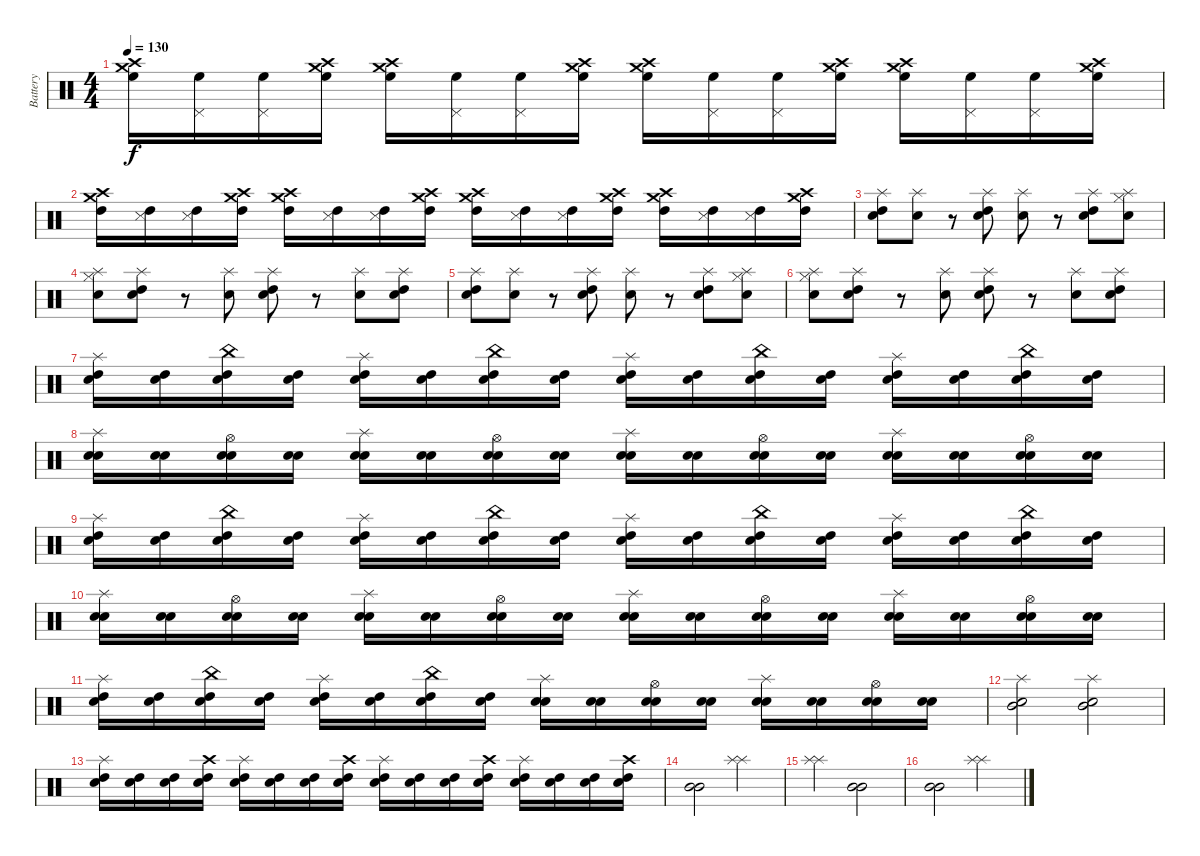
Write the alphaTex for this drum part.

\track ("Battery" "Battery") {instrument percussion}
\staff {score}
\articulation defaults
\ts (4 4)
\tempo 130
\clef neutral
\ks c
("High Floor Tom (hit)" "Crash high (hit)" "Crash medium (hit)").16{dy f} ("High Floor Tom (hit)" "Pedal Hi-Hat (hit)").16 ("High Floor Tom (hit)" "Pedal Hi-Hat (hit)").16 ("High Floor Tom (hit)" "Crash high (hit)" "Crash medium (hit)").16 ("High Floor Tom (hit)" "Crash high (hit)" "Crash medium (hit)").16 ("High Floor Tom (hit)" "Pedal Hi-Hat (hit)").16 ("High Floor Tom (hit)" "Pedal Hi-Hat (hit)").16 ("High Floor Tom (hit)" "Crash high (hit)" "Crash medium (hit)").16 ("High Floor Tom (hit)" "Crash high (hit)" "Crash medium (hit)").16 ("High Floor Tom (hit)" "Pedal Hi-Hat (hit)").16 ("High Floor Tom (hit)" "Pedal Hi-Hat (hit)").16 ("High Floor Tom (hit)" "Crash high (hit)" "Crash medium (hit)").16 ("High Floor Tom (hit)" "Crash high (hit)" "Crash medium (hit)").16 ("High Floor Tom (hit)" "Pedal Hi-Hat (hit)").16 ("High Floor Tom (hit)" "Pedal Hi-Hat (hit)").16 ("High Floor Tom (hit)" "Crash high (hit)" "Crash medium (hit)").16 |
("High Tom (hit)" "Crash high (hit)" "Crash medium (hit)").16 ("High Tom (hit)" "Snare (side stick) 3").16 ("High Tom (hit)" "Snare (side stick) 3").16 ("High Tom (hit)" "Crash high (hit)" "Crash medium (hit)").16 ("High Tom (hit)" "Crash high (hit)" "Crash medium (hit)").16 ("High Tom (hit)" "Snare (side stick) 3").16 ("High Tom (hit)" "Snare (side stick) 3").16 ("High Tom (hit)" "Crash high (hit)" "Crash medium (hit)").16 ("High Tom (hit)" "Crash high (hit)" "Crash medium (hit)").16 ("High Tom (hit)" "Snare (side stick) 3").16 ("High Tom (hit)" "Snare (side stick) 3").16 ("High Tom (hit)" "Crash high (hit)" "Crash medium (hit)").16 ("High Tom (hit)" "Crash high (hit)" "Crash medium (hit)").16 ("High Tom (hit)" "Snare (side stick) 3").16 ("High Tom (hit)" "Snare (side stick) 3").16 ("High Tom (hit)" "Crash high (hit)" "Crash medium (hit)").16 |
("Snare (hit) 2" "Splash (hit)" "High Tom (hit)").8 ("Snare (hit) 2" "Splash (hit)").8 r.8 ("Snare (hit) 2" "Splash (hit)" "High Tom (hit)").8 ("Snare (hit) 2" "Splash (hit)").8 r.8 ("Snare (hit) 2" "Splash (hit)" "High Tom (hit)").8 ("Snare (hit) 2" "Splash (hit)" "Hi-Hat (closed)").8 |
("Snare (hit) 2" "Splash (hit)" "Hi-Hat (closed)").8 ("Snare (hit) 2" "Splash (hit)" "High Tom (hit)").8 r.8 ("Snare (hit) 2" "Splash (hit)").8 ("Snare (hit) 2" "Splash (hit)" "High Tom (hit)").8 r.8 ("Snare (hit) 2" "Splash (hit)").8 ("Snare (hit) 2" "Splash (hit)" "High Tom (hit)").8 |
("Snare (hit) 2" "Splash (hit)" "High Tom (hit)").8 ("Snare (hit) 2" "Splash (hit)").8 r.8 ("Snare (hit) 2" "Splash (hit)" "High Tom (hit)").8 ("Snare (hit) 2" "Splash (hit)").8 r.8 ("Snare (hit) 2" "Splash (hit)" "High Tom (hit)").8 ("Snare (hit) 2" "Splash (hit)" "Hi-Hat (closed)").8 |
("Snare (hit) 2" "Splash (hit)" "Hi-Hat (closed)").8 ("Snare (hit) 2" "Splash (hit)" "High Tom (hit)").8 r.8 ("Snare (hit) 2" "Splash (hit)").8 ("Snare (hit) 2" "Splash (hit)" "High Tom (hit)").8 r.8 ("Snare (hit) 2" "Splash (hit)").8 ("Snare (hit) 2" "Splash (hit)" "High Tom (hit)").8 |
("Snare (hit) 2" "High Tom (hit)" "Splash (hit)").16 ("Electric Snare (hit)" "High Tom (hit)").16 ("Electric Snare (hit)" "High Tom (hit)" "China (hit)").16 ("Snare (hit) 2" "High Tom (hit)").16 ("Snare (hit) 2" "High Tom (hit)" "Splash (hit)").16 ("Electric Snare (hit)" "High Tom (hit)").16 ("Electric Snare (hit)" "High Tom (hit)" "China (hit)").16 ("Snare (hit) 2" "High Tom (hit)").16 ("Snare (hit) 2" "High Tom (hit)" "Splash (hit)").16 ("Electric Snare (hit)" "High Tom (hit)").16 ("Electric Snare (hit)" "High Tom (hit)" "China (hit)").16 ("Snare (hit) 2" "High Tom (hit)").16 ("Snare (hit) 2" "High Tom (hit)" "Splash (hit)").16 ("Electric Snare (hit)" "High Tom (hit)").16 ("Electric Snare (hit)" "High Tom (hit)" "China (hit)").16 ("Snare (hit) 2" "High Tom (hit)").16 |
("Electric Snare (hit)" "Snare (hit) 2" "Splash (hit)").16 ("Snare (hit) 2" "Snare (hit) 2").16 ("Snare (hit) 2" "Snare (hit) 2" "Hi-Hat (open)").16 ("Electric Snare (hit)" "Snare (hit) 2").16 ("Electric Snare (hit)" "Snare (hit) 2" "Splash (hit)").16 ("Snare (hit) 2" "Snare (hit) 2").16 ("Snare (hit) 2" "Snare (hit) 2" "Hi-Hat (open)").16 ("Electric Snare (hit)" "Snare (hit) 2").16 ("Electric Snare (hit)" "Snare (hit) 2" "Splash (hit)").16 ("Snare (hit) 2" "Snare (hit) 2").16 ("Snare (hit) 2" "Snare (hit) 2" "Hi-Hat (open)").16 ("Electric Snare (hit)" "Snare (hit) 2").16 ("Electric Snare (hit)" "Snare (hit) 2" "Splash (hit)").16 ("Snare (hit) 2" "Snare (hit) 2").16 ("Snare (hit) 2" "Snare (hit) 2" "Hi-Hat (open)").16 ("Electric Snare (hit)" "Snare (hit) 2").16 |
("Snare (hit) 2" "High Tom (hit)" "Splash (hit)").16 ("Electric Snare (hit)" "High Tom (hit)").16 ("Electric Snare (hit)" "High Tom (hit)" "China (hit)").16 ("Snare (hit) 2" "High Tom (hit)").16 ("Snare (hit) 2" "High Tom (hit)" "Splash (hit)").16 ("Electric Snare (hit)" "High Tom (hit)").16 ("Electric Snare (hit)" "High Tom (hit)" "China (hit)").16 ("Snare (hit) 2" "High Tom (hit)").16 ("Snare (hit) 2" "High Tom (hit)" "Splash (hit)").16 ("Electric Snare (hit)" "High Tom (hit)").16 ("Electric Snare (hit)" "High Tom (hit)" "China (hit)").16 ("Snare (hit) 2" "High Tom (hit)").16 ("Snare (hit) 2" "High Tom (hit)" "Splash (hit)").16 ("Electric Snare (hit)" "High Tom (hit)").16 ("Electric Snare (hit)" "High Tom (hit)" "China (hit)").16 ("Snare (hit) 2" "High Tom (hit)").16 |
("Electric Snare (hit)" "Snare (hit) 2" "Splash (hit)").16 ("Snare (hit) 2" "Snare (hit) 2").16 ("Snare (hit) 2" "Snare (hit) 2" "Hi-Hat (open)").16 ("Electric Snare (hit)" "Snare (hit) 2").16 ("Electric Snare (hit)" "Snare (hit) 2" "Splash (hit)").16 ("Snare (hit) 2" "Snare (hit) 2").16 ("Snare (hit) 2" "Snare (hit) 2" "Hi-Hat (open)").16 ("Electric Snare (hit)" "Snare (hit) 2").16 ("Electric Snare (hit)" "Snare (hit) 2" "Splash (hit)").16 ("Snare (hit) 2" "Snare (hit) 2").16 ("Snare (hit) 2" "Snare (hit) 2" "Hi-Hat (open)").16 ("Electric Snare (hit)" "Snare (hit) 2").16 ("Electric Snare (hit)" "Snare (hit) 2" "Splash (hit)").16 ("Snare (hit) 2" "Snare (hit) 2").16 ("Snare (hit) 2" "Snare (hit) 2" "Hi-Hat (open)").16 ("Electric Snare (hit)" "Snare (hit) 2").16 |
("Snare (hit) 2" "High Tom (hit)" "Splash (hit)").16 ("Electric Snare (hit)" "High Tom (hit)").16 ("Electric Snare (hit)" "High Tom (hit)" "China (hit)").16 ("Snare (hit) 2" "High Tom (hit)").16 ("Electric Snare (hit)" "High Tom (hit)" "Splash (hit)").16 ("Snare (hit) 2" "High Tom (hit)").16 ("Snare (hit) 2" "High Tom (hit)" "China (hit)").16 ("Electric Snare (hit)" "High Tom (hit)").16 ("Snare (hit) 2" "Snare (hit) 2" "Splash (hit)").16 ("Electric Snare (hit)" "Snare (hit) 2").16 ("Electric Snare (hit)" "Snare (hit) 2" "Hi-Hat (open)").16 ("Snare (hit) 2" "Snare (hit) 2").16 ("Electric Snare (hit)" "Snare (hit) 2" "Splash (hit)").16 ("Snare (hit) 2" "Snare (hit) 2").16 ("Snare (hit) 2" "Snare (hit) 2" "Hi-Hat (open)").16 ("Electric Snare (hit)" "Snare (hit) 2").16 |
("Mid Tom (hit)" "Electric Snare (hit)" "Splash (hit)").2 ("Mid Tom (hit)" "Electric Snare (hit)" "Splash (hit)").2 |
("High Tom (hit)" "Electric Snare (hit)" "Splash (hit)").16 ("High Tom (hit)" "Electric Snare (hit)").16 ("High Tom (hit)" "Electric Snare (hit)").16 ("High Tom (hit)" "Electric Snare (hit)" "Crash high (hit)").16 ("High Tom (hit)" "Electric Snare (hit)" "Splash (hit)").16 ("High Tom (hit)" "Electric Snare (hit)").16 ("High Tom (hit)" "Electric Snare (hit)").16 ("High Tom (hit)" "Electric Snare (hit)" "Crash high (hit)").16 ("High Tom (hit)" "Electric Snare (hit)" "Splash (hit)").16 ("High Tom (hit)" "Electric Snare (hit)").16 ("High Tom (hit)" "Electric Snare (hit)").16 ("High Tom (hit)" "Electric Snare (hit)" "Crash high (hit)").16 ("High Tom (hit)" "Electric Snare (hit)" "Splash (hit)").16 ("High Tom (hit)" "Electric Snare (hit)").16 ("High Tom (hit)" "Electric Snare (hit)").16 ("High Tom (hit)" "Electric Snare (hit)" "Crash high (hit)").16 |
("Mid Tom (hit)" "Mid Tom (hit)").2 ("Splash (hit)" "Splash (hit)").2 |
("Splash (hit)" "Splash (hit)").2 ("Mid Tom (hit)" "Mid Tom (hit)").2 |
("Mid Tom (hit)" "Mid Tom (hit)").2 ("Splash (hit)" "Splash (hit)").2
